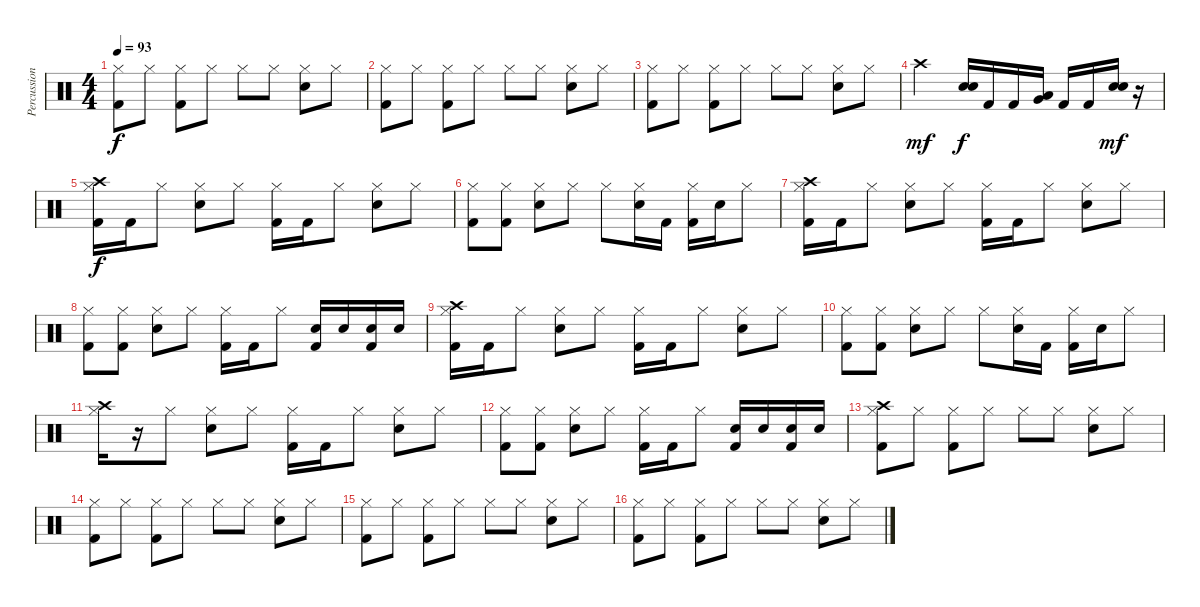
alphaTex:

\track ("Percussion" "Percussion") {instrument percussion}
\staff {score}
\articulation defaults
\ts (4 4)
\tempo 93
\clef neutral
\ks c
("Hi-Hat (closed)" "Kick (hit) 2").8{dy f} "Hi-Hat (closed)".8 ("Hi-Hat (closed)" "Kick (hit) 2").8 "Hi-Hat (closed)".8 "Hi-Hat (closed)".8 "Hi-Hat (closed)".8 ("Hi-Hat (closed)" "Electric Snare (hit)").8 "Hi-Hat (closed)".8 |
("Hi-Hat (closed)" "Kick (hit) 2").8 "Hi-Hat (closed)".8 ("Hi-Hat (closed)" "Kick (hit) 2").8 "Hi-Hat (closed)".8 "Hi-Hat (closed)".8 "Hi-Hat (closed)".8 ("Hi-Hat (closed)" "Electric Snare (hit)").8 "Hi-Hat (closed)".8 |
("Hi-Hat (closed)" "Kick (hit) 2").8 "Hi-Hat (closed)".8 ("Hi-Hat (closed)" "Kick (hit) 2").8 "Hi-Hat (closed)".8 "Hi-Hat (closed)".8 "Hi-Hat (closed)".8 ("Hi-Hat (closed)" "Electric Snare (hit)").8 "Hi-Hat (closed)".8 |
"Crash high (hit)".2{dy mf} ("Electric Snare (hit)" "Electric Snare (hit)").16{dy f} "Kick (hit) 2".16 "Kick (hit) 2".16 ("Low Tom (hit)" "Very Low Tom (hit)").16 "Kick (hit) 2".16 "Kick (hit) 2".16 ("Electric Snare (hit)" "Electric Snare (hit)").16{dy mf} r.16 |
("Crash high (hit)" "Hi-Hat (closed)" "Kick (hit) 2").16{dy f} "Kick (hit) 2".16 "Hi-Hat (closed)".8 ("Hi-Hat (closed)" "Electric Snare (hit)").8 "Hi-Hat (closed)".8 ("Hi-Hat (closed)" "Kick (hit) 2").16 "Kick (hit) 2".16 "Hi-Hat (closed)".8 ("Hi-Hat (closed)" "Electric Snare (hit)").8 "Hi-Hat (closed)".8 |
("Hi-Hat (closed)" "Kick (hit) 2").8 ("Hi-Hat (closed)" "Kick (hit) 2").8 ("Hi-Hat (closed)" "Electric Snare (hit)").8 "Hi-Hat (closed)".8 "Hi-Hat (closed)".8 ("Hi-Hat (closed)" "Electric Snare (hit)").16 "Kick (hit) 2".16 ("Hi-Hat (closed)" "Kick (hit) 2").16 "Electric Snare (hit)".16 "Hi-Hat (closed)".8 |
("Crash high (hit)" "Hi-Hat (closed)" "Kick (hit) 2").16 "Kick (hit) 2".16 "Hi-Hat (closed)".8 ("Hi-Hat (closed)" "Electric Snare (hit)").8 "Hi-Hat (closed)".8 ("Hi-Hat (closed)" "Kick (hit) 2").16 "Kick (hit) 2".16 "Hi-Hat (closed)".8 ("Hi-Hat (closed)" "Electric Snare (hit)").8 "Hi-Hat (closed)".8 |
("Hi-Hat (closed)" "Kick (hit) 2").8 ("Hi-Hat (closed)" "Kick (hit) 2").8 ("Hi-Hat (closed)" "Electric Snare (hit)").8 "Hi-Hat (closed)".8 ("Hi-Hat (closed)" "Kick (hit) 2").16 "Kick (hit) 2".16 "Hi-Hat (closed)".8 ("Electric Snare (hit)" "Kick (hit) 2").16 "Electric Snare (hit)".16 ("Electric Snare (hit)" "Kick (hit) 2").16 "Electric Snare (hit)".16 |
("Crash high (hit)" "Hi-Hat (closed)" "Kick (hit) 2").16 "Kick (hit) 2".16 "Hi-Hat (closed)".8 ("Hi-Hat (closed)" "Electric Snare (hit)").8 "Hi-Hat (closed)".8 ("Hi-Hat (closed)" "Kick (hit) 2").16 "Kick (hit) 2".16 "Hi-Hat (closed)".8 ("Hi-Hat (closed)" "Electric Snare (hit)").8 "Hi-Hat (closed)".8 |
("Hi-Hat (closed)" "Kick (hit) 2").8 ("Hi-Hat (closed)" "Kick (hit) 2").8 ("Hi-Hat (closed)" "Electric Snare (hit)").8 "Hi-Hat (closed)".8 "Hi-Hat (closed)".8 ("Hi-Hat (closed)" "Electric Snare (hit)").16 "Kick (hit) 2".16 ("Hi-Hat (closed)" "Kick (hit) 2").16 "Electric Snare (hit)".16 "Hi-Hat (closed)".8 |
("Crash high (hit)" "Hi-Hat (closed)").16 r.16 "Hi-Hat (closed)".8 ("Hi-Hat (closed)" "Electric Snare (hit)").8 "Hi-Hat (closed)".8 ("Hi-Hat (closed)" "Kick (hit) 2").16 "Kick (hit) 2".16 "Hi-Hat (closed)".8 ("Hi-Hat (closed)" "Electric Snare (hit)").8 "Hi-Hat (closed)".8 |
("Hi-Hat (closed)" "Kick (hit) 2").8 ("Hi-Hat (closed)" "Kick (hit) 2").8 ("Hi-Hat (closed)" "Electric Snare (hit)").8 "Hi-Hat (closed)".8 ("Hi-Hat (closed)" "Kick (hit) 2").16 "Kick (hit) 2".16 "Hi-Hat (closed)".8 ("Electric Snare (hit)" "Kick (hit) 2").16 "Electric Snare (hit)".16 ("Electric Snare (hit)" "Kick (hit) 2").16 "Electric Snare (hit)".16 |
("Crash high (hit)" "Hi-Hat (closed)" "Kick (hit) 2").8 "Hi-Hat (closed)".8 ("Hi-Hat (closed)" "Kick (hit) 2").8 "Hi-Hat (closed)".8 "Hi-Hat (closed)".8 "Hi-Hat (closed)".8 ("Hi-Hat (closed)" "Electric Snare (hit)").8 "Hi-Hat (closed)".8 |
("Hi-Hat (closed)" "Kick (hit) 2").8 "Hi-Hat (closed)".8 ("Hi-Hat (closed)" "Kick (hit) 2").8 "Hi-Hat (closed)".8 "Hi-Hat (closed)".8 "Hi-Hat (closed)".8 ("Hi-Hat (closed)" "Electric Snare (hit)").8 "Hi-Hat (closed)".8 |
("Hi-Hat (closed)" "Kick (hit) 2").8 "Hi-Hat (closed)".8 ("Hi-Hat (closed)" "Kick (hit) 2").8 "Hi-Hat (closed)".8 "Hi-Hat (closed)".8 "Hi-Hat (closed)".8 ("Hi-Hat (closed)" "Electric Snare (hit)").8 "Hi-Hat (closed)".8 |
("Hi-Hat (closed)" "Kick (hit) 2").8 "Hi-Hat (closed)".8 ("Hi-Hat (closed)" "Kick (hit) 2").8 "Hi-Hat (closed)".8 "Hi-Hat (closed)".8 "Hi-Hat (closed)".8 ("Hi-Hat (closed)" "Electric Snare (hit)").8 "Hi-Hat (closed)".8
